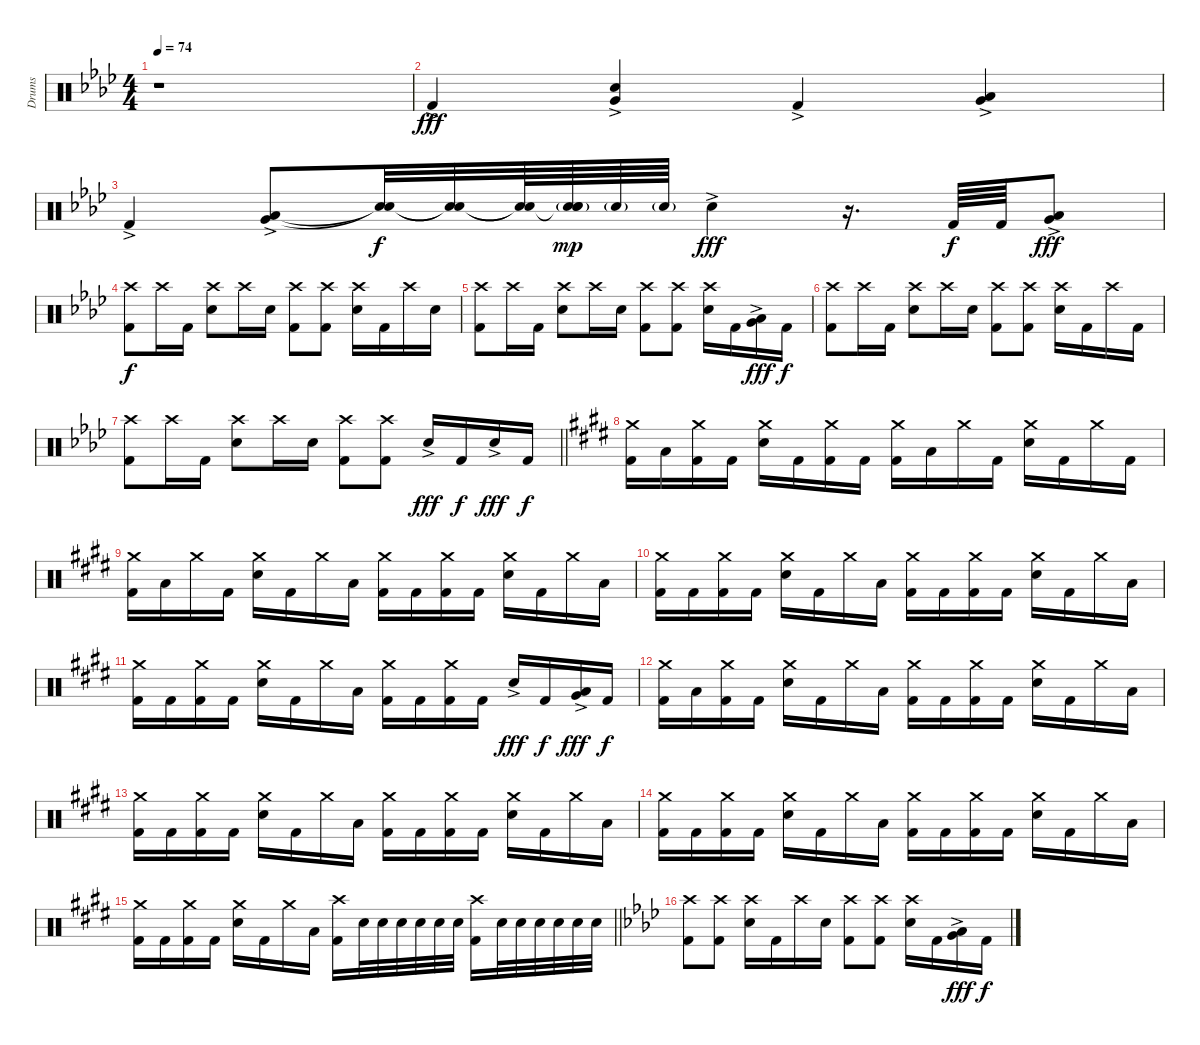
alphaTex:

\track ("Drums" "Drums") {instrument percussion}
\staff {score}
\articulation defaults
\ts (4 4)
\tempo 74
\clef neutral
\ks fminor
r.1{dy f} |
"Kick (hit) 2"{ac}.4{dy fff} ("Snare (hit) 2" "Very Low Tom (hit)"{ac}).4 "Kick (hit) 2"{ac}.4 ("Low Tom (hit)" "Very Low Tom (hit)"{ac}).4 |
"Kick (hit) 2"{ac}.4 ("Low Tom (hit)" "Very Low Tom (hit)"{ac}).8 ("Snare (hit)"{t} "Snare (hit)"{t}).32{dy f} ("Snare (hit)"{t} "Snare (hit)"{t}).32 ("Snare (hit)"{t} "Snare (hit)"{t}).64 ("Snare (hit) 2"{g} "Snare (hit)"{t} "Snare (hit)"{t}).64{dy mp} "Snare (hit) 2"{g}.64 "Snare (hit) 2"{g}.64 "Snare (hit) 2"{ac}.4{dy fff} r.16{d} "Kick (hit) 2".64{dy f} "Kick (hit) 2".64 ("Low Tom (hit)"{ac} "Very Low Tom (hit)"{ac}).8{dy fff} |
("Crash high (hit)" "Kick (hit) 2").8{dy f} "Crash high (hit)".16 "Kick (hit) 2".16 ("Crash high (hit)" "Snare (hit) 2").8 "Crash high (hit)".16 "Snare (hit) 2".16 ("Crash high (hit)" "Kick (hit) 2").8 ("Crash high (hit)" "Kick (hit) 2").8 ("Crash high (hit)" "Snare (hit) 2").16 "Kick (hit) 2".16 "Crash high (hit)".16 "Snare (hit) 2".16 |
("Crash high (hit)" "Kick (hit) 2").8 "Crash high (hit)".16 "Kick (hit) 2".16 ("Crash high (hit)" "Snare (hit) 2").8 "Crash high (hit)".16 "Snare (hit) 2".16 ("Crash high (hit)" "Kick (hit) 2").8 ("Crash high (hit)" "Kick (hit) 2").8 ("Crash high (hit)" "Snare (hit) 2").16 "Kick (hit) 2".16 ("Low Tom (hit)" "Very Low Tom (hit)"{ac}).16{dy fff} "Kick (hit) 2".16{dy f} |
("Crash high (hit)" "Kick (hit) 2").8 "Crash high (hit)".16 "Kick (hit) 2".16 ("Crash high (hit)" "Snare (hit) 2").8 "Crash high (hit)".16 "Snare (hit) 2".16 ("Crash high (hit)" "Kick (hit) 2").8 ("Crash high (hit)" "Kick (hit) 2").8 ("Crash high (hit)" "Snare (hit) 2").16 "Kick (hit) 2".16 "Crash high (hit)".16 "Kick (hit) 2".16 |
\barLineRight lightlight
("Crash high (hit)" "Kick (hit) 2").8 "Crash high (hit)".16 "Kick (hit) 2".16 ("Crash high (hit)" "Snare (hit) 2").8 "Crash high (hit)".16 "Snare (hit) 2".16 ("Crash high (hit)" "Kick (hit) 2").8 ("Crash high (hit)" "Kick (hit) 2").8 "Snare (hit) 2"{ac}.16{dy fff} "Kick (hit) 2".16{dy f} "Snare (hit) 2"{ac}.16{dy fff} "Kick (hit) 2".16{dy f} |
\ks c#minor
("Crash medium (hit)" "Kick (hit) 2").16 "Low Tom (hit)".16 ("Crash medium (hit)" "Kick (hit) 2").16 "Kick (hit) 2".16 ("Crash medium (hit)" "Snare (hit) 2").16 "Kick (hit) 2".16 ("Crash medium (hit)" "Kick (hit) 2").16 "Kick (hit) 2".16 ("Crash medium (hit)" "Kick (hit) 2").16 "Low Tom (hit)".16 "Crash medium (hit)".16 "Kick (hit) 2".16 ("Crash medium (hit)" "Snare (hit) 2").16 "Kick (hit) 2".16 "Crash medium (hit)".16 "Kick (hit) 2".16 |
("Crash medium (hit)" "Kick (hit) 2").16 "Low Tom (hit)".16 "Crash medium (hit)".16 "Kick (hit) 2".16 ("Crash medium (hit)" "Snare (hit) 2").16 "Kick (hit) 2".16 "Crash medium (hit)".16 "Low Tom (hit)".16 ("Crash medium (hit)" "Kick (hit) 2").16 "Kick (hit) 2".16 ("Crash medium (hit)" "Kick (hit) 2").16 "Kick (hit) 2".16 ("Crash medium (hit)" "Snare (hit) 2").16 "Kick (hit) 2".16 "Crash medium (hit)".16 "Low Tom (hit)".16 |
("Crash medium (hit)" "Kick (hit) 2").16 "Kick (hit) 2".16 ("Crash medium (hit)" "Kick (hit) 2").16 "Kick (hit) 2".16 ("Crash medium (hit)" "Snare (hit) 2").16 "Kick (hit) 2".16 "Crash medium (hit)".16 "Low Tom (hit)".16 ("Crash medium (hit)" "Kick (hit) 2").16 "Kick (hit) 2".16 ("Crash medium (hit)" "Kick (hit) 2").16 "Kick (hit) 2".16 ("Crash medium (hit)" "Snare (hit) 2").16 "Kick (hit) 2".16 "Crash medium (hit)".16 "Low Tom (hit)".16 |
("Crash medium (hit)" "Kick (hit) 2").16 "Kick (hit) 2".16 ("Crash medium (hit)" "Kick (hit) 2").16 "Kick (hit) 2".16 ("Crash medium (hit)" "Snare (hit) 2").16 "Kick (hit) 2".16 "Crash medium (hit)".16 "Low Tom (hit)".16 ("Crash medium (hit)" "Kick (hit) 2").16 "Kick (hit) 2".16 ("Crash medium (hit)" "Kick (hit) 2").16 "Kick (hit) 2".16 "Snare (hit) 2"{ac}.16{dy fff} "Kick (hit) 2".16{dy f} ("Low Tom (hit)" "Very Low Tom (hit)"{ac}).16{dy fff} "Kick (hit) 2".16{dy f} |
("Crash medium (hit)" "Kick (hit) 2").16 "Low Tom (hit)".16 ("Crash medium (hit)" "Kick (hit) 2").16 "Kick (hit) 2".16 ("Crash medium (hit)" "Snare (hit) 2").16 "Kick (hit) 2".16 "Crash medium (hit)".16 "Low Tom (hit)".16 ("Crash medium (hit)" "Kick (hit) 2").16 "Kick (hit) 2".16 ("Crash medium (hit)" "Kick (hit) 2").16 "Kick (hit) 2".16 ("Crash medium (hit)" "Snare (hit) 2").16 "Kick (hit) 2".16 "Crash medium (hit)".16 "Low Tom (hit)".16 |
("Crash medium (hit)" "Kick (hit) 2").16 "Kick (hit) 2".16 ("Crash medium (hit)" "Kick (hit) 2").16 "Kick (hit) 2".16 ("Crash medium (hit)" "Snare (hit) 2").16 "Kick (hit) 2".16 "Crash medium (hit)".16 "Low Tom (hit)".16 ("Crash medium (hit)" "Kick (hit) 2").16 "Kick (hit) 2".16 ("Crash medium (hit)" "Kick (hit) 2").16 "Kick (hit) 2".16 ("Crash medium (hit)" "Snare (hit) 2").16 "Kick (hit) 2".16 "Crash medium (hit)".16 "Low Tom (hit)".16 |
("Crash medium (hit)" "Kick (hit) 2").16 "Kick (hit) 2".16 ("Crash medium (hit)" "Kick (hit) 2").16 "Kick (hit) 2".16 ("Crash medium (hit)" "Snare (hit) 2").16 "Kick (hit) 2".16 "Crash medium (hit)".16 "Low Tom (hit)".16 ("Crash medium (hit)" "Kick (hit) 2").16 "Kick (hit) 2".16 ("Crash medium (hit)" "Kick (hit) 2").16 "Kick (hit) 2".16 ("Crash medium (hit)" "Snare (hit) 2").16 "Kick (hit) 2".16 "Crash medium (hit)".16 "Low Tom (hit)".16 |
\barLineRight lightlight
("Crash medium (hit)" "Kick (hit) 2").16 "Kick (hit) 2".16 ("Crash medium (hit)" "Kick (hit) 2").16 "Kick (hit) 2".16 ("Crash medium (hit)" "Snare (hit) 2").16 "Kick (hit) 2".16 "Crash medium (hit)".16 "Low Tom (hit)".16 ("Crash high (hit)" "Kick (hit) 2").16 "Snare (hit) 2".32 "Snare (hit) 2".32 "Snare (hit) 2".32 "Snare (hit) 2".32 "Snare (hit) 2".32 "Snare (hit) 2".32 ("Crash high (hit)" "Kick (hit) 2").16 "Snare (hit) 2".32 "Snare (hit) 2".32 "Snare (hit) 2".32 "Snare (hit) 2".32 "Snare (hit) 2".32 "Snare (hit) 2".32 |
\ks fminor
("Crash high (hit)" "Kick (hit) 2").8 ("Crash high (hit)" "Kick (hit) 2").8 ("Crash high (hit)" "Snare (hit) 2").16 "Kick (hit) 2".16 "Crash high (hit)".16 "Snare (hit) 2".16 ("Crash high (hit)" "Kick (hit) 2").8 ("Crash high (hit)" "Kick (hit) 2").8 ("Crash high (hit)" "Snare (hit) 2").16 "Kick (hit) 2".16 ("Low Tom (hit)"{ac} "Very Low Tom (hit)").16{dy fff} "Kick (hit) 2".16{dy f}
